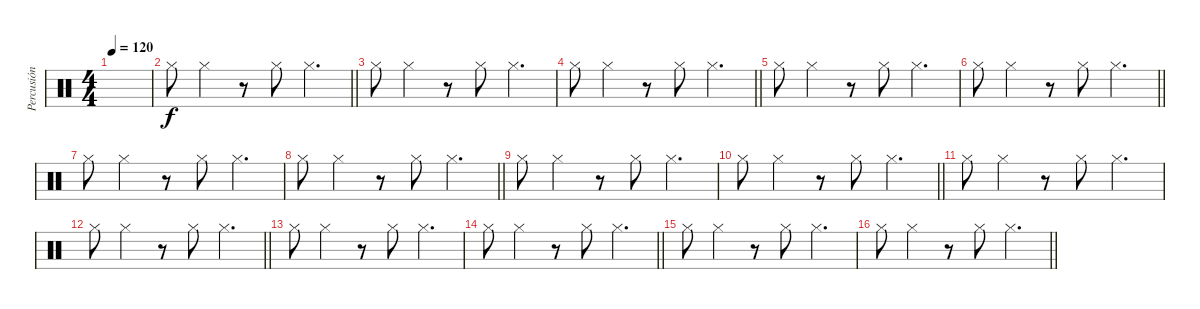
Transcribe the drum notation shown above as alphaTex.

\track ("Percusión" "Percusión") {instrument percussion}
\staff {score}
\articulation defaults
\ts (4 4)
\tempo 120
\clef neutral
\ks c
|
\barLineRight lightlight "Hi-Hat (closed)".8 "Hi-Hat (closed)".4
r.8 "Hi-Hat (closed)".8 "Hi-Hat (closed)".4{d} |
"Hi-Hat (closed)".8 "Hi-Hat (closed)".4 r.8 "Hi-Hat (closed)".8 "Hi-Hat (closed)".4{d} |
\barLineRight lightlight "Hi-Hat (closed)".8 "Hi-Hat (closed)".4
r.8 "Hi-Hat (closed)".8 "Hi-Hat (closed)".4{d} |
"Hi-Hat (closed)".8 "Hi-Hat (closed)".4 r.8 "Hi-Hat (closed)".8 "Hi-Hat (closed)".4{d} |
\barLineRight lightlight "Hi-Hat (closed)".8 "Hi-Hat (closed)".4
r.8 "Hi-Hat (closed)".8 "Hi-Hat (closed)".4{d} |
"Hi-Hat (closed)".8 "Hi-Hat (closed)".4 r.8 "Hi-Hat (closed)".8 "Hi-Hat (closed)".4{d} |
\barLineRight lightlight "Hi-Hat (closed)".8 "Hi-Hat (closed)".4
r.8 "Hi-Hat (closed)".8 "Hi-Hat (closed)".4{d} |
"Hi-Hat (closed)".8 "Hi-Hat (closed)".4 r.8 "Hi-Hat (closed)".8 "Hi-Hat (closed)".4{d} |
\barLineRight lightlight "Hi-Hat (closed)".8 "Hi-Hat (closed)".4
r.8 "Hi-Hat (closed)".8 "Hi-Hat (closed)".4{d} |
"Hi-Hat (closed)".8 "Hi-Hat (closed)".4 r.8 "Hi-Hat (closed)".8 "Hi-Hat (closed)".4{d} |
\barLineRight lightlight "Hi-Hat (closed)".8 "Hi-Hat (closed)".4
r.8 "Hi-Hat (closed)".8 "Hi-Hat (closed)".4{d} |
"Hi-Hat (closed)".8 "Hi-Hat (closed)".4 r.8 "Hi-Hat (closed)".8 "Hi-Hat (closed)".4{d} |
\barLineRight lightlight "Hi-Hat (closed)".8 "Hi-Hat (closed)".4
r.8 "Hi-Hat (closed)".8 "Hi-Hat (closed)".4{d} |
"Hi-Hat (closed)".8 "Hi-Hat (closed)".4 r.8 "Hi-Hat (closed)".8 "Hi-Hat (closed)".4{d} |
\barLineRight lightlight "Hi-Hat (closed)".8 "Hi-Hat (closed)".4
r.8 "Hi-Hat (closed)".8 "Hi-Hat (closed)".4{d}
